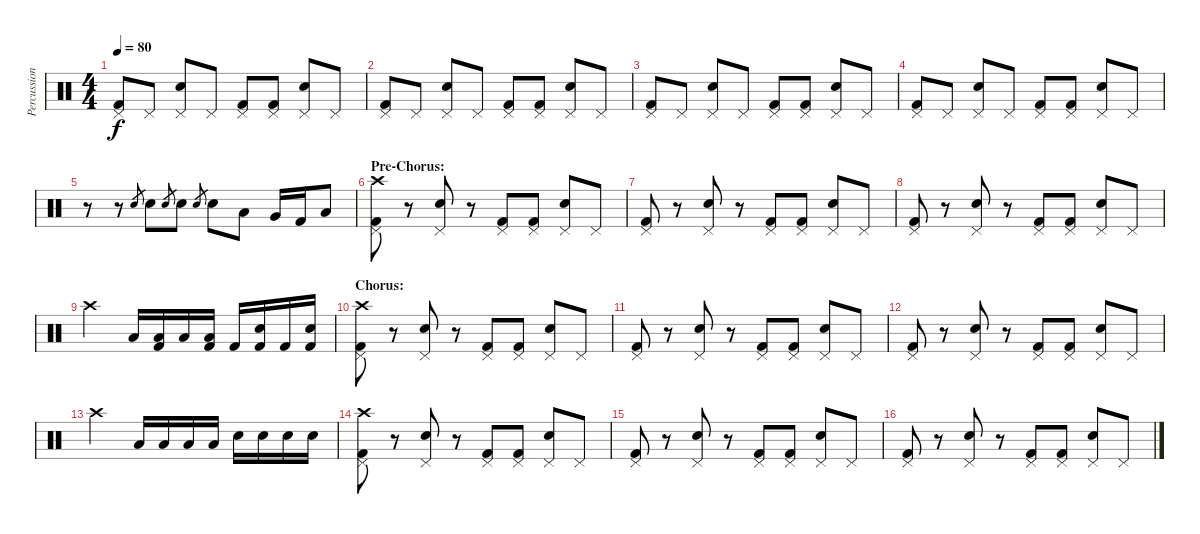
\track ("Percussion" "Percussion") {instrument percussion}
\staff {score}
\articulation defaults
\ts (4 4)
\tempo 80
\clef neutral
\ks c
("Pedal Hi-Hat (hit)" "Kick (hit) 2").8{dy f} "Pedal Hi-Hat (hit)".8 ("Pedal Hi-Hat (hit)" "Snare (hit) 2").8 "Pedal Hi-Hat (hit)".8 ("Pedal Hi-Hat (hit)" "Kick (hit) 2").8 ("Pedal Hi-Hat (hit)" "Kick (hit) 2").8 ("Pedal Hi-Hat (hit)" "Snare (hit) 2").8 "Pedal Hi-Hat (hit)".8 |
("Pedal Hi-Hat (hit)" "Kick (hit) 2").8 "Pedal Hi-Hat (hit)".8 ("Pedal Hi-Hat (hit)" "Snare (hit) 2").8 "Pedal Hi-Hat (hit)".8 ("Pedal Hi-Hat (hit)" "Kick (hit) 2").8 ("Pedal Hi-Hat (hit)" "Kick (hit) 2").8 ("Pedal Hi-Hat (hit)" "Snare (hit) 2").8 "Pedal Hi-Hat (hit)".8 |
("Pedal Hi-Hat (hit)" "Kick (hit) 2").8 "Pedal Hi-Hat (hit)".8 ("Pedal Hi-Hat (hit)" "Snare (hit) 2").8 "Pedal Hi-Hat (hit)".8 ("Pedal Hi-Hat (hit)" "Kick (hit) 2").8 ("Pedal Hi-Hat (hit)" "Kick (hit) 2").8 ("Pedal Hi-Hat (hit)" "Snare (hit) 2").8 "Pedal Hi-Hat (hit)".8 |
("Pedal Hi-Hat (hit)" "Kick (hit) 2").8 "Pedal Hi-Hat (hit)".8 ("Pedal Hi-Hat (hit)" "Snare (hit) 2").8 "Pedal Hi-Hat (hit)".8 ("Pedal Hi-Hat (hit)" "Kick (hit) 2").8 ("Pedal Hi-Hat (hit)" "Kick (hit) 2").8 ("Pedal Hi-Hat (hit)" "Snare (hit) 2").8 "Pedal Hi-Hat (hit)".8 |
r.8 r.8 "Snare (hit) 2".8{gr} "Snare (hit) 2".8 "Snare (hit) 2".8{gr} "Snare (hit) 2".8 "Snare (hit) 2".8{gr} "Snare (hit) 2".8 "Low Tom (hit)".8 "Very Low Tom (hit)".16 "Kick (hit) 2".16 "Low Floor Tom (hit)".8 |
\section ("" "Pre-Chorus:")
("Pedal Hi-Hat (hit)" "Crash high (hit)" "Kick (hit) 2").8 r.8 ("Pedal Hi-Hat (hit)" "Snare (hit) 2").8 r.8 ("Pedal Hi-Hat (hit)" "Kick (hit) 2").8 ("Pedal Hi-Hat (hit)" "Kick (hit) 2").8 ("Pedal Hi-Hat (hit)" "Snare (hit) 2").8 "Pedal Hi-Hat (hit)".8 |
("Pedal Hi-Hat (hit)" "Kick (hit) 2").8 r.8 ("Pedal Hi-Hat (hit)" "Snare (hit) 2").8 r.8 ("Pedal Hi-Hat (hit)" "Kick (hit) 2").8 ("Pedal Hi-Hat (hit)" "Kick (hit) 2").8 ("Pedal Hi-Hat (hit)" "Snare (hit) 2").8 "Pedal Hi-Hat (hit)".8 |
("Pedal Hi-Hat (hit)" "Kick (hit) 2").8 r.8 ("Pedal Hi-Hat (hit)" "Snare (hit) 2").8 r.8 ("Pedal Hi-Hat (hit)" "Kick (hit) 2").8 ("Pedal Hi-Hat (hit)" "Kick (hit) 2").8 ("Pedal Hi-Hat (hit)" "Snare (hit) 2").8 "Pedal Hi-Hat (hit)".8 |
"Crash high (hit)".2 "Low Tom (hit)".16 ("Kick (hit) 2" "Low Tom (hit)").16 "Low Tom (hit)".16 ("Kick (hit) 2" "Low Tom (hit)").16 "Kick (hit) 2".16 ("Snare (hit) 2" "Kick (hit) 2").16 "Kick (hit) 2".16 ("Snare (hit) 2" "Kick (hit) 2").16 |
\section ("" "Chorus:")
("Pedal Hi-Hat (hit)" "Crash high (hit)" "Kick (hit) 2").8 r.8 ("Pedal Hi-Hat (hit)" "Snare (hit) 2").8 r.8 ("Pedal Hi-Hat (hit)" "Kick (hit) 2").8 ("Pedal Hi-Hat (hit)" "Kick (hit) 2").8 ("Pedal Hi-Hat (hit)" "Snare (hit) 2").8 "Pedal Hi-Hat (hit)".8 |
("Pedal Hi-Hat (hit)" "Kick (hit) 2").8 r.8 ("Pedal Hi-Hat (hit)" "Snare (hit) 2").8 r.8 ("Pedal Hi-Hat (hit)" "Kick (hit) 2").8 ("Pedal Hi-Hat (hit)" "Kick (hit) 2").8 ("Pedal Hi-Hat (hit)" "Snare (hit) 2").8 "Pedal Hi-Hat (hit)".8 |
("Pedal Hi-Hat (hit)" "Kick (hit) 2").8 r.8 ("Pedal Hi-Hat (hit)" "Snare (hit) 2").8 r.8 ("Pedal Hi-Hat (hit)" "Kick (hit) 2").8 ("Pedal Hi-Hat (hit)" "Kick (hit) 2").8 ("Pedal Hi-Hat (hit)" "Snare (hit) 2").8 "Pedal Hi-Hat (hit)".8 |
"Crash high (hit)".2 "Low Tom (hit)".16 "Low Tom (hit)".16 "Low Tom (hit)".16 "Low Tom (hit)".16 "Snare (hit) 2".16 "Snare (hit) 2".16 "Snare (hit) 2".16 "Snare (hit) 2".16 |
("Pedal Hi-Hat (hit)" "Crash high (hit)" "Kick (hit) 2").8 r.8 ("Pedal Hi-Hat (hit)" "Snare (hit) 2").8 r.8 ("Pedal Hi-Hat (hit)" "Kick (hit) 2").8 ("Pedal Hi-Hat (hit)" "Kick (hit) 2").8 ("Pedal Hi-Hat (hit)" "Snare (hit) 2").8 "Pedal Hi-Hat (hit)".8 |
("Pedal Hi-Hat (hit)" "Kick (hit) 2").8 r.8 ("Pedal Hi-Hat (hit)" "Snare (hit) 2").8 r.8 ("Pedal Hi-Hat (hit)" "Kick (hit) 2").8 ("Pedal Hi-Hat (hit)" "Kick (hit) 2").8 ("Pedal Hi-Hat (hit)" "Snare (hit) 2").8 "Pedal Hi-Hat (hit)".8 |
("Pedal Hi-Hat (hit)" "Kick (hit) 2").8 r.8 ("Pedal Hi-Hat (hit)" "Snare (hit) 2").8 r.8 ("Pedal Hi-Hat (hit)" "Kick (hit) 2").8 ("Pedal Hi-Hat (hit)" "Kick (hit) 2").8 ("Pedal Hi-Hat (hit)" "Snare (hit) 2").8 "Pedal Hi-Hat (hit)".8
